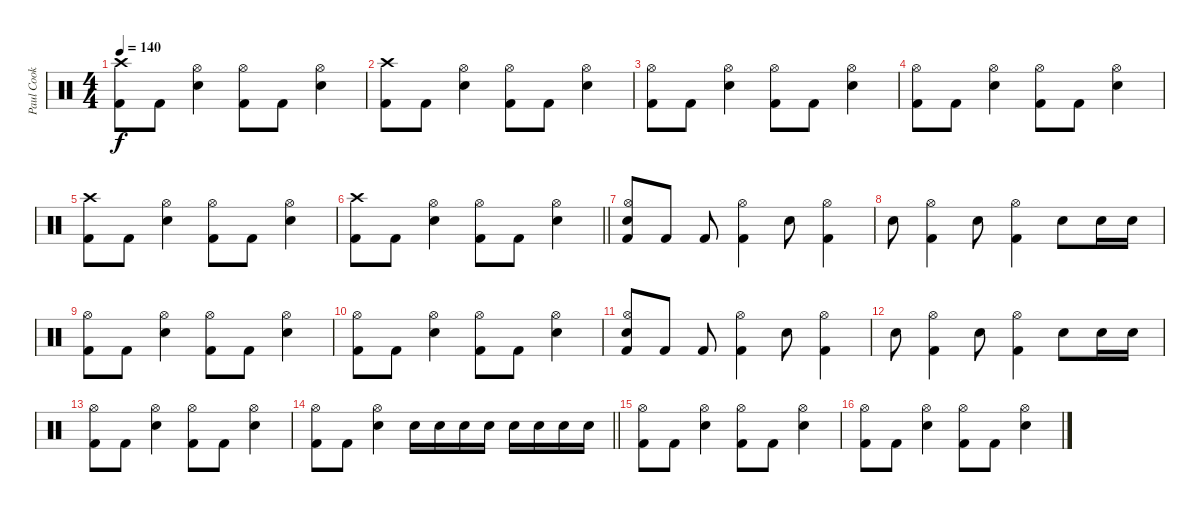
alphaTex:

\track ("Paul Cook" "Paul Cook") {instrument percussion}
\staff {score}
\articulation defaults
\ts (4 4)
\tempo 140
\clef neutral
\ks c
("Crash high (hit)" "Kick (hit) 2").8{dy f} "Kick (hit) 2".8 ("Hi-Hat (open)" "Electric Snare (hit)").4 ("Hi-Hat (open)" "Kick (hit) 2").8 "Kick (hit) 2".8 ("Hi-Hat (open)" "Electric Snare (hit)").4 |
("Crash high (hit)" "Kick (hit) 2").8 "Kick (hit) 2".8 ("Hi-Hat (open)" "Electric Snare (hit)").4 ("Hi-Hat (open)" "Kick (hit) 2").8 "Kick (hit) 2".8 ("Hi-Hat (open)" "Electric Snare (hit)").4 |
("Hi-Hat (open)" "Kick (hit) 2").8 "Kick (hit) 2".8 ("Hi-Hat (open)" "Electric Snare (hit)").4 ("Hi-Hat (open)" "Kick (hit) 2").8 "Kick (hit) 2".8 ("Hi-Hat (open)" "Electric Snare (hit)").4 |
("Hi-Hat (open)" "Kick (hit) 2").8 "Kick (hit) 2".8 ("Hi-Hat (open)" "Electric Snare (hit)").4 ("Hi-Hat (open)" "Kick (hit) 2").8 "Kick (hit) 2".8 ("Hi-Hat (open)" "Electric Snare (hit)").4 |
("Crash high (hit)" "Kick (hit) 2").8 "Kick (hit) 2".8 ("Hi-Hat (open)" "Electric Snare (hit)").4 ("Hi-Hat (open)" "Kick (hit) 2").8 "Kick (hit) 2".8 ("Hi-Hat (open)" "Electric Snare (hit)").4 |
\barLineRight lightlight
("Crash high (hit)" "Kick (hit) 2").8 "Kick (hit) 2".8 ("Hi-Hat (open)" "Electric Snare (hit)").4 ("Hi-Hat (open)" "Kick (hit) 2").8 "Kick (hit) 2".8 ("Hi-Hat (open)" "Electric Snare (hit)").4 |
("Hi-Hat (open)" "Electric Snare (hit)" "Kick (hit) 2").8 "Kick (hit) 2".8 "Kick (hit) 2".8 ("Hi-Hat (open)" "Kick (hit) 2").4 "Electric Snare (hit)".8 ("Hi-Hat (open)" "Kick (hit) 2").4 |
"Electric Snare (hit)".8 ("Hi-Hat (open)" "Kick (hit) 2").4 "Electric Snare (hit)".8 ("Hi-Hat (open)" "Kick (hit) 2").4 "Electric Snare (hit)".8 "Electric Snare (hit)".16 "Electric Snare (hit)".16 |
("Hi-Hat (open)" "Kick (hit) 2").8 "Kick (hit) 2".8 ("Hi-Hat (open)" "Electric Snare (hit)").4 ("Hi-Hat (open)" "Kick (hit) 2").8 "Kick (hit) 2".8 ("Hi-Hat (open)" "Electric Snare (hit)").4 |
("Hi-Hat (open)" "Kick (hit) 2").8 "Kick (hit) 2".8 ("Hi-Hat (open)" "Electric Snare (hit)").4 ("Hi-Hat (open)" "Kick (hit) 2").8 "Kick (hit) 2".8 ("Hi-Hat (open)" "Electric Snare (hit)").4 |
("Hi-Hat (open)" "Electric Snare (hit)" "Kick (hit) 2").8 "Kick (hit) 2".8 "Kick (hit) 2".8 ("Hi-Hat (open)" "Kick (hit) 2").4 "Electric Snare (hit)".8 ("Hi-Hat (open)" "Kick (hit) 2").4 |
"Electric Snare (hit)".8 ("Hi-Hat (open)" "Kick (hit) 2").4 "Electric Snare (hit)".8 ("Hi-Hat (open)" "Kick (hit) 2").4 "Electric Snare (hit)".8 "Electric Snare (hit)".16 "Electric Snare (hit)".16 |
("Hi-Hat (open)" "Kick (hit) 2").8 "Kick (hit) 2".8 ("Hi-Hat (open)" "Electric Snare (hit)").4 ("Hi-Hat (open)" "Kick (hit) 2").8 "Kick (hit) 2".8 ("Hi-Hat (open)" "Electric Snare (hit)").4 |
\barLineRight lightlight
("Hi-Hat (open)" "Kick (hit) 2").8 "Kick (hit) 2".8 ("Hi-Hat (open)" "Electric Snare (hit)").4 "Electric Snare (hit)".16 "Electric Snare (hit)".16 "Electric Snare (hit)".16 "Electric Snare (hit)".16 "Electric Snare (hit)".16 "Electric Snare (hit)".16 "Electric Snare (hit)".16 "Electric Snare (hit)".16 |
("Hi-Hat (open)" "Kick (hit) 2").8 "Kick (hit) 2".8 ("Hi-Hat (open)" "Electric Snare (hit)").4 ("Hi-Hat (open)" "Kick (hit) 2").8 "Kick (hit) 2".8 ("Hi-Hat (open)" "Electric Snare (hit)").4 |
("Hi-Hat (open)" "Kick (hit) 2").8 "Kick (hit) 2".8 ("Hi-Hat (open)" "Electric Snare (hit)").4 ("Hi-Hat (open)" "Kick (hit) 2").8 "Kick (hit) 2".8 ("Hi-Hat (open)" "Electric Snare (hit)").4
